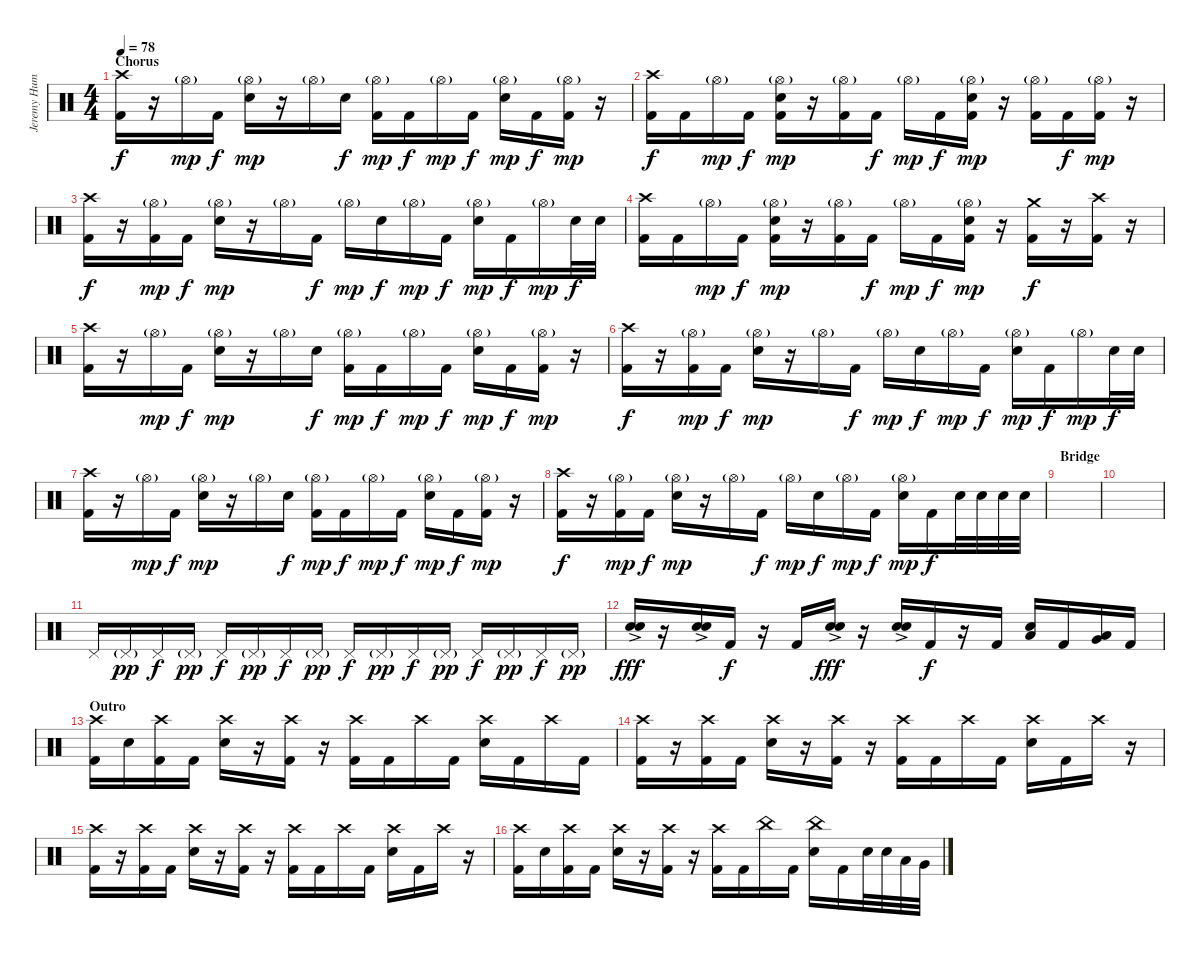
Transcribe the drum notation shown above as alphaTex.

\track ("Jeremy Hummel" "Jeremy Hum") {instrument percussion}
\staff {score}
\articulation defaults
\ts (4 4)
\section ("" "Chorus")
\tempo 78
\clef neutral
\ks c
("Crash high (hit)" "Kick (hit) 2").16{dy f} r.16 "Hi-Hat (open)"{g}.16{dy mp} "Kick (hit) 2".16{dy f} ("Hi-Hat (open)"{g} "Snare (hit) 2").16{dy mp} r.16 "Hi-Hat (open)"{g}.16 "Snare (hit) 2".16{dy f} ("Hi-Hat (open)"{g} "Kick (hit) 2").16{dy mp} "Kick (hit) 2".16{dy f} "Hi-Hat (open)"{g}.16{dy mp} "Kick (hit) 2".16{dy f} ("Hi-Hat (open)"{g} "Snare (hit) 2").16{dy mp} "Kick (hit) 2".16{dy f} ("Hi-Hat (open)"{g} "Kick (hit) 2").16{dy mp} r.16 |
("Crash high (hit)" "Kick (hit) 2").16{dy f} "Kick (hit) 2".16 "Hi-Hat (open)"{g}.16{dy mp} "Kick (hit) 2".16{dy f} ("Hi-Hat (open)"{g} "Snare (hit) 2" "Kick (hit) 2").16{dy mp} r.16 ("Hi-Hat (open)"{g} "Kick (hit) 2").16 "Kick (hit) 2".16{dy f} "Hi-Hat (open)"{g}.16{dy mp} "Kick (hit) 2".16{dy f} ("Hi-Hat (open)"{g} "Snare (hit) 2" "Kick (hit) 2").16{dy mp} r.16 ("Hi-Hat (open)"{g} "Kick (hit) 2").16 "Kick (hit) 2".16{dy f} ("Hi-Hat (open)"{g} "Kick (hit) 2").16{dy mp} r.16 |
("Crash high (hit)" "Kick (hit) 2").16{dy f} r.16 ("Hi-Hat (open)"{g} "Kick (hit) 2").16{dy mp} "Kick (hit) 2".16{dy f} ("Hi-Hat (open)"{g} "Snare (hit) 2").16{dy mp} r.16 "Hi-Hat (open)"{g}.16 "Kick (hit) 2".16{dy f} "Hi-Hat (open)"{g}.16{dy mp} "Snare (hit) 2".16{dy f} "Hi-Hat (open)"{g}.16{dy mp} "Kick (hit) 2".16{dy f} ("Hi-Hat (open)"{g} "Snare (hit) 2").16{dy mp} "Kick (hit) 2".16{dy f} "Hi-Hat (open)"{g}.16{dy mp} "Snare (hit) 2".32{dy f} "Snare (hit) 2".32 |
("Crash high (hit)" "Kick (hit) 2").16 "Kick (hit) 2".16 "Hi-Hat (open)"{g}.16{dy mp} "Kick (hit) 2".16{dy f} ("Hi-Hat (open)"{g} "Snare (hit) 2" "Kick (hit) 2").16{dy mp} r.16 ("Hi-Hat (open)"{g} "Kick (hit) 2").16 "Kick (hit) 2".16{dy f} "Hi-Hat (open)"{g}.16{dy mp} "Kick (hit) 2".16{dy f} ("Hi-Hat (open)"{g} "Snare (hit) 2" "Kick (hit) 2").16{dy mp} r.16 ("Crash medium (hit)" "Kick (hit) 2").16{dy f} r.16 ("Crash high (hit)" "Kick (hit) 2").16 r.16 |
("Crash high (hit)" "Kick (hit) 2").16 r.16 "Hi-Hat (open)"{g}.16{dy mp} "Kick (hit) 2".16{dy f} ("Hi-Hat (open)"{g} "Snare (hit) 2").16{dy mp} r.16 "Hi-Hat (open)"{g}.16 "Snare (hit) 2".16{dy f} ("Hi-Hat (open)"{g} "Kick (hit) 2").16{dy mp} "Kick (hit) 2".16{dy f} "Hi-Hat (open)"{g}.16{dy mp} "Kick (hit) 2".16{dy f} ("Hi-Hat (open)"{g} "Snare (hit) 2").16{dy mp} "Kick (hit) 2".16{dy f} ("Hi-Hat (open)"{g} "Kick (hit) 2").16{dy mp} r.16 |
("Crash high (hit)" "Kick (hit) 2").16{dy f} r.16 ("Hi-Hat (open)"{g} "Kick (hit) 2").16{dy mp} "Kick (hit) 2".16{dy f} ("Hi-Hat (open)"{g} "Snare (hit) 2").16{dy mp} r.16 "Hi-Hat (open)"{g}.16 "Kick (hit) 2".16{dy f} "Hi-Hat (open)"{g}.16{dy mp} "Snare (hit) 2".16{dy f} "Hi-Hat (open)"{g}.16{dy mp} "Kick (hit) 2".16{dy f} ("Hi-Hat (open)"{g} "Snare (hit) 2").16{dy mp} "Kick (hit) 2".16{dy f} "Hi-Hat (open)"{g}.16{dy mp} "Snare (hit) 2".32{dy f} "Snare (hit) 2".32 |
("Crash high (hit)" "Kick (hit) 2").16 r.16 "Hi-Hat (open)"{g}.16{dy mp} "Kick (hit) 2".16{dy f} ("Hi-Hat (open)"{g} "Snare (hit) 2").16{dy mp} r.16 "Hi-Hat (open)"{g}.16 "Snare (hit) 2".16{dy f} ("Hi-Hat (open)"{g} "Kick (hit) 2").16{dy mp} "Kick (hit) 2".16{dy f} "Hi-Hat (open)"{g}.16{dy mp} "Kick (hit) 2".16{dy f} ("Hi-Hat (open)"{g} "Snare (hit) 2").16{dy mp} "Kick (hit) 2".16{dy f} ("Hi-Hat (open)"{g} "Kick (hit) 2").16{dy mp} r.16 |
("Crash high (hit)" "Kick (hit) 2").16{dy f} r.16 ("Hi-Hat (open)"{g} "Kick (hit) 2").16{dy mp} "Kick (hit) 2".16{dy f} ("Hi-Hat (open)"{g} "Snare (hit) 2").16{dy mp} r.16 "Hi-Hat (open)"{g}.16 "Kick (hit) 2".16{dy f} "Hi-Hat (open)"{g}.16{dy mp} "Snare (hit) 2".16{dy f} "Hi-Hat (open)"{g}.16{dy mp} "Kick (hit) 2".16{dy f} ("Hi-Hat (open)"{g} "Snare (hit) 2").16{dy mp} "Kick (hit) 2".16{dy f} "Snare (hit) 2".32 "Snare (hit) 2".32 "Snare (hit) 2".32 "Snare (hit) 2".32 |
\section ("" "Bridge")
|
|
"Pedal Hi-Hat (hit)".16 "Pedal Hi-Hat (hit)"{g}.16{dy pp} "Pedal Hi-Hat (hit)".16{dy f} "Pedal Hi-Hat (hit)"{g}.16{dy pp} "Pedal Hi-Hat (hit)".16{dy f} "Pedal Hi-Hat (hit)"{g}.16{dy pp} "Pedal Hi-Hat (hit)".16{dy f} "Pedal Hi-Hat (hit)"{g}.16{dy pp} "Pedal Hi-Hat (hit)".16{dy f} "Pedal Hi-Hat (hit)"{g}.16{dy pp} "Pedal Hi-Hat (hit)".16{dy f} "Pedal Hi-Hat (hit)"{g}.16{dy pp} "Pedal Hi-Hat (hit)".16{dy f} "Pedal Hi-Hat (hit)"{g}.16{dy pp} "Pedal Hi-Hat (hit)".16{dy f} "Pedal Hi-Hat (hit)"{g}.16{dy pp} |
("Snare (hit) 2"{ac} "Snare (hit) 2").16{dy fff} r.16 ("Snare (hit) 2"{ac} "Snare (hit) 2").16 "Kick (hit) 2".16{dy f} r.16 "Kick (hit) 2".16 ("Snare (hit) 2"{ac} "Snare (hit) 2").16{dy fff} r.16 ("Snare (hit) 2"{ac} "Snare (hit) 2").16 "Kick (hit) 2".16{dy f} r.16 "Kick (hit) 2".16 ("Low Tom (hit)" "Snare (hit) 2").16 "Kick (hit) 2".16 ("Low Tom (hit)" "Very Low Tom (hit)").16 "Kick (hit) 2".16 |
\section ("" "Outro")
("Crash high (hit)" "Kick (hit) 2").16 "Snare (hit) 2".16 ("Crash high (hit)" "Kick (hit) 2").16 "Kick (hit) 2".16 ("Crash high (hit)" "Snare (hit) 2").16 r.16 ("Crash high (hit)" "Kick (hit) 2").16 r.16 ("Crash high (hit)" "Kick (hit) 2").16 "Kick (hit) 2".16 "Crash high (hit)".16 "Kick (hit) 2".16 ("Crash high (hit)" "Snare (hit) 2").16 "Kick (hit) 2".16 "Crash high (hit)".16 "Kick (hit) 2".16 |
("Crash high (hit)" "Kick (hit) 2").16 r.16 ("Crash high (hit)" "Kick (hit) 2").16 "Kick (hit) 2".16 ("Crash high (hit)" "Snare (hit) 2").16 r.16 ("Crash high (hit)" "Kick (hit) 2").16 r.16 ("Crash high (hit)" "Kick (hit) 2").16 "Kick (hit) 2".16 "Crash high (hit)".16 "Kick (hit) 2".16 ("Crash high (hit)" "Snare (hit) 2").16 "Kick (hit) 2".16 "Crash high (hit)".16 r.16 |
("Crash high (hit)" "Kick (hit) 2").16 r.16 ("Crash high (hit)" "Kick (hit) 2").16 "Kick (hit) 2".16 ("Crash high (hit)" "Snare (hit) 2").16 r.16 ("Crash high (hit)" "Kick (hit) 2").16 r.16 ("Crash high (hit)" "Kick (hit) 2").16 "Kick (hit) 2".16 "Crash high (hit)".16 "Kick (hit) 2".16 ("Crash high (hit)" "Snare (hit) 2").16 "Kick (hit) 2".16 "Crash high (hit)".16 r.16 |
("Crash high (hit)" "Kick (hit) 2").16 "Snare (hit) 2".16 ("Crash high (hit)" "Kick (hit) 2").16 "Kick (hit) 2".16 ("Crash high (hit)" "Snare (hit) 2").16 r.16 ("Crash high (hit)" "Kick (hit) 2").16 r.16 ("Crash high (hit)" "Kick (hit) 2").16 "Kick (hit) 2".16 "China (hit)".16 "Kick (hit) 2".16 ("China (hit)" "Snare (hit) 2").16 "Kick (hit) 2".16 "Snare (hit) 2".32 "Snare (hit) 2".32 "Low Tom (hit)".32 "Very Low Tom (hit)".32
